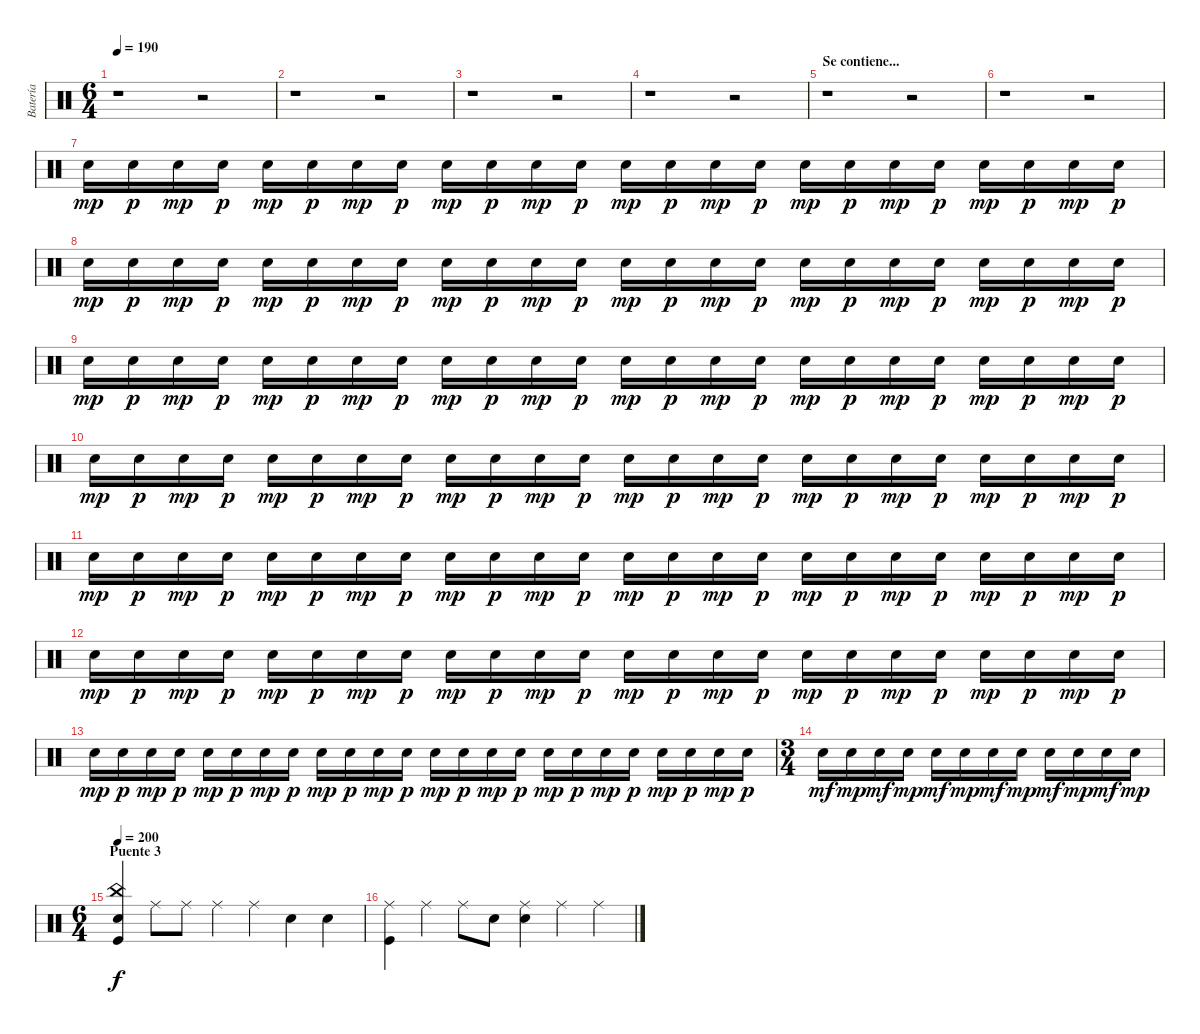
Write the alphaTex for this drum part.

\track ("Batería" "Batería") {instrument percussion}
\staff {score}
\articulation defaults
\ts (6 4)
\tempo 190
\clef neutral
\ks c
r.1{dy f} r.2 |
r.1 r.2 |
r.1 r.2 |
r.1 r.2 |
\section ("" "Se contiene...")
r.1 r.2 |
r.1 r.2 |
"Snare (hit) 2".16{dy mp} "Snare (hit) 2".16{dy p} "Snare (hit) 2".16{dy mp} "Snare (hit) 2".16{dy p} "Snare (hit) 2".16{dy mp} "Snare (hit) 2".16{dy p} "Snare (hit) 2".16{dy mp} "Snare (hit) 2".16{dy p} "Snare (hit) 2".16{dy mp} "Snare (hit) 2".16{dy p} "Snare (hit) 2".16{dy mp} "Snare (hit) 2".16{dy p} "Snare (hit) 2".16{dy mp} "Snare (hit) 2".16{dy p} "Snare (hit) 2".16{dy mp} "Snare (hit) 2".16{dy p} "Snare (hit) 2".16{dy mp} "Snare (hit) 2".16{dy p} "Snare (hit) 2".16{dy mp} "Snare (hit) 2".16{dy p} "Snare (hit) 2".16{dy mp} "Snare (hit) 2".16{dy p} "Snare (hit) 2".16{dy mp} "Snare (hit) 2".16{dy p} |
"Snare (hit) 2".16{dy mp} "Snare (hit) 2".16{dy p} "Snare (hit) 2".16{dy mp} "Snare (hit) 2".16{dy p} "Snare (hit) 2".16{dy mp} "Snare (hit) 2".16{dy p} "Snare (hit) 2".16{dy mp} "Snare (hit) 2".16{dy p} "Snare (hit) 2".16{dy mp} "Snare (hit) 2".16{dy p} "Snare (hit) 2".16{dy mp} "Snare (hit) 2".16{dy p} "Snare (hit) 2".16{dy mp} "Snare (hit) 2".16{dy p} "Snare (hit) 2".16{dy mp} "Snare (hit) 2".16{dy p} "Snare (hit) 2".16{dy mp} "Snare (hit) 2".16{dy p} "Snare (hit) 2".16{dy mp} "Snare (hit) 2".16{dy p} "Snare (hit) 2".16{dy mp} "Snare (hit) 2".16{dy p} "Snare (hit) 2".16{dy mp} "Snare (hit) 2".16{dy p} |
"Snare (hit) 2".16{dy mp} "Snare (hit) 2".16{dy p} "Snare (hit) 2".16{dy mp} "Snare (hit) 2".16{dy p} "Snare (hit) 2".16{dy mp} "Snare (hit) 2".16{dy p} "Snare (hit) 2".16{dy mp} "Snare (hit) 2".16{dy p} "Snare (hit) 2".16{dy mp} "Snare (hit) 2".16{dy p} "Snare (hit) 2".16{dy mp} "Snare (hit) 2".16{dy p} "Snare (hit) 2".16{dy mp} "Snare (hit) 2".16{dy p} "Snare (hit) 2".16{dy mp} "Snare (hit) 2".16{dy p} "Snare (hit) 2".16{dy mp} "Snare (hit) 2".16{dy p} "Snare (hit) 2".16{dy mp} "Snare (hit) 2".16{dy p} "Snare (hit) 2".16{dy mp} "Snare (hit) 2".16{dy p} "Snare (hit) 2".16{dy mp} "Snare (hit) 2".16{dy p} |
"Snare (hit) 2".16{dy mp} "Snare (hit) 2".16{dy p} "Snare (hit) 2".16{dy mp} "Snare (hit) 2".16{dy p} "Snare (hit) 2".16{dy mp} "Snare (hit) 2".16{dy p} "Snare (hit) 2".16{dy mp} "Snare (hit) 2".16{dy p} "Snare (hit) 2".16{dy mp} "Snare (hit) 2".16{dy p} "Snare (hit) 2".16{dy mp} "Snare (hit) 2".16{dy p} "Snare (hit) 2".16{dy mp} "Snare (hit) 2".16{dy p} "Snare (hit) 2".16{dy mp} "Snare (hit) 2".16{dy p} "Snare (hit) 2".16{dy mp} "Snare (hit) 2".16{dy p} "Snare (hit) 2".16{dy mp} "Snare (hit) 2".16{dy p} "Snare (hit) 2".16{dy mp} "Snare (hit) 2".16{dy p} "Snare (hit) 2".16{dy mp} "Snare (hit) 2".16{dy p} |
"Snare (hit) 2".16{dy mp} "Snare (hit) 2".16{dy p} "Snare (hit) 2".16{dy mp} "Snare (hit) 2".16{dy p} "Snare (hit) 2".16{dy mp} "Snare (hit) 2".16{dy p} "Snare (hit) 2".16{dy mp} "Snare (hit) 2".16{dy p} "Snare (hit) 2".16{dy mp} "Snare (hit) 2".16{dy p} "Snare (hit) 2".16{dy mp} "Snare (hit) 2".16{dy p} "Snare (hit) 2".16{dy mp} "Snare (hit) 2".16{dy p} "Snare (hit) 2".16{dy mp} "Snare (hit) 2".16{dy p} "Snare (hit) 2".16{dy mp} "Snare (hit) 2".16{dy p} "Snare (hit) 2".16{dy mp} "Snare (hit) 2".16{dy p} "Snare (hit) 2".16{dy mp} "Snare (hit) 2".16{dy p} "Snare (hit) 2".16{dy mp} "Snare (hit) 2".16{dy p} |
"Snare (hit) 2".16{dy mp} "Snare (hit) 2".16{dy p} "Snare (hit) 2".16{dy mp} "Snare (hit) 2".16{dy p} "Snare (hit) 2".16{dy mp} "Snare (hit) 2".16{dy p} "Snare (hit) 2".16{dy mp} "Snare (hit) 2".16{dy p} "Snare (hit) 2".16{dy mp} "Snare (hit) 2".16{dy p} "Snare (hit) 2".16{dy mp} "Snare (hit) 2".16{dy p} "Snare (hit) 2".16{dy mp} "Snare (hit) 2".16{dy p} "Snare (hit) 2".16{dy mp} "Snare (hit) 2".16{dy p} "Snare (hit) 2".16{dy mp} "Snare (hit) 2".16{dy p} "Snare (hit) 2".16{dy mp} "Snare (hit) 2".16{dy p} "Snare (hit) 2".16{dy mp} "Snare (hit) 2".16{dy p} "Snare (hit) 2".16{dy mp} "Snare (hit) 2".16{dy p} |
"Snare (hit) 2".16{dy mp} "Snare (hit) 2".16{dy p} "Snare (hit) 2".16{dy mp} "Snare (hit) 2".16{dy p} "Snare (hit) 2".16{dy mp} "Snare (hit) 2".16{dy p} "Snare (hit) 2".16{dy mp} "Snare (hit) 2".16{dy p} "Snare (hit) 2".16{dy mp} "Snare (hit) 2".16{dy p} "Snare (hit) 2".16{dy mp} "Snare (hit) 2".16{dy p} "Snare (hit) 2".16{dy mp} "Snare (hit) 2".16{dy p} "Snare (hit) 2".16{dy mp} "Snare (hit) 2".16{dy p} "Snare (hit) 2".16{dy mp} "Snare (hit) 2".16{dy p} "Snare (hit) 2".16{dy mp} "Snare (hit) 2".16{dy p} "Snare (hit) 2".16{dy mp} "Snare (hit) 2".16{dy p} "Snare (hit) 2".16{dy mp} "Snare (hit) 2".16{dy p} |
\ts (3 4)
"Snare (hit) 2".16{dy mf} "Snare (hit) 2".16{dy mp} "Snare (hit) 2".16{dy mf} "Snare (hit) 2".16{dy mp} "Snare (hit) 2".16{dy mf} "Snare (hit) 2".16{dy mp} "Snare (hit) 2".16{dy mf} "Snare (hit) 2".16{dy mp} "Snare (hit) 2".16{dy mf} "Snare (hit) 2".16{dy mp} "Snare (hit) 2".16{dy mf} "Snare (hit) 2".16{dy mp} |
\ts (6 4)
\section ("" "Puente 3")
\tempo 200
("Snare (hit) 2" "China (hit)" "Kick (hit)").4{dy f} "Ride (middle)".8 "Ride (middle)".8 "Ride (middle)".4 "Ride (middle)".4 "Snare (hit) 2".4 "Snare (hit) 2".4 |
("Ride (middle)" "Kick (hit)").4 "Ride (middle)".4 "Ride (middle)".8 "Snare (hit) 2".8 ("Ride (middle)" "Snare (hit) 2").4 "Ride (middle)".4 "Ride (middle)".4
